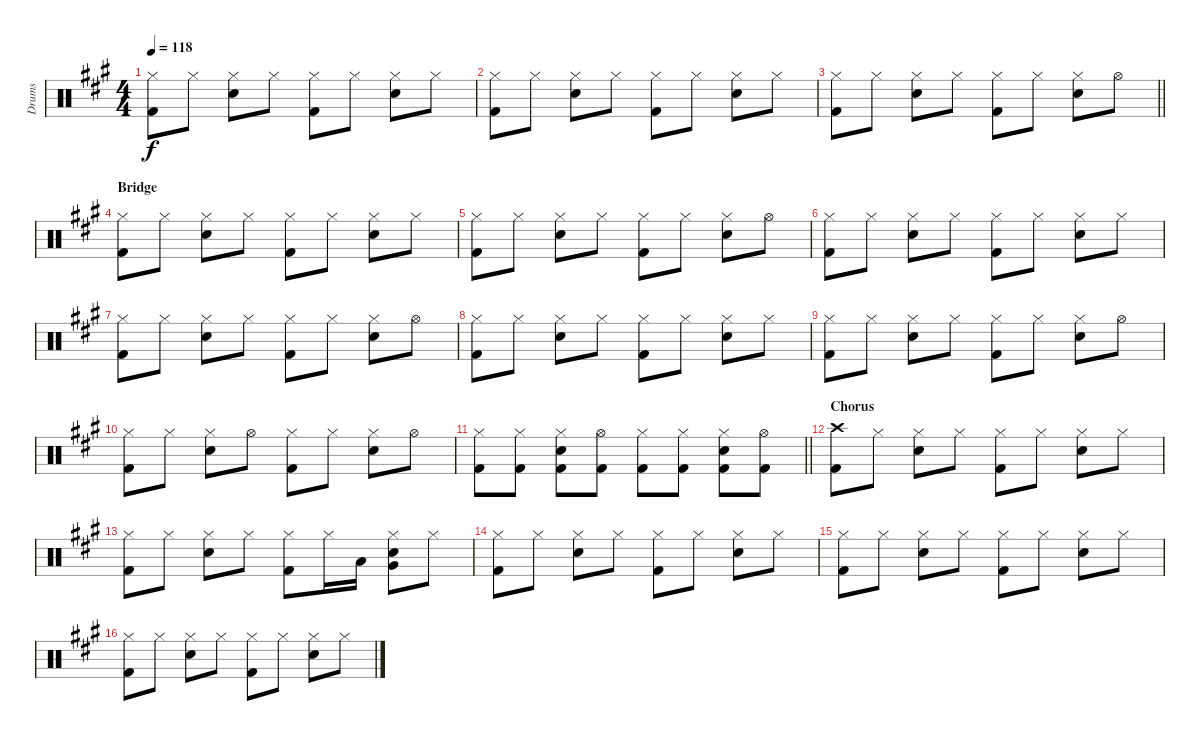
\track ("Drums" "Drums") {instrument percussion}
\staff {score}
\articulation defaults
\ts (4 4)
\tempo 118
\clef neutral
\ks f#minor
("Hi-Hat (closed)" "Kick (hit) 2").8{dy f} "Hi-Hat (closed)".8 ("Hi-Hat (closed)" "Snare (hit) 2").8 "Hi-Hat (closed)".8 ("Hi-Hat (closed)" "Kick (hit) 2").8 "Hi-Hat (closed)".8 ("Hi-Hat (closed)" "Snare (hit) 2").8 "Hi-Hat (closed)".8 |
("Hi-Hat (closed)" "Kick (hit) 2").8 "Hi-Hat (closed)".8 ("Hi-Hat (closed)" "Snare (hit) 2").8 "Hi-Hat (closed)".8 ("Hi-Hat (closed)" "Kick (hit) 2").8 "Hi-Hat (closed)".8 ("Hi-Hat (closed)" "Snare (hit) 2").8 "Hi-Hat (closed)".8 |
\barLineRight lightlight
("Hi-Hat (closed)" "Kick (hit) 2").8 "Hi-Hat (closed)".8 ("Hi-Hat (closed)" "Snare (hit) 2").8 "Hi-Hat (closed)".8 ("Hi-Hat (closed)" "Kick (hit) 2").8 "Hi-Hat (closed)".8 ("Hi-Hat (closed)" "Snare (hit) 2").8 "Hi-Hat (open)".8 |
\section ("" "Bridge")
("Hi-Hat (closed)" "Kick (hit) 2").8 "Hi-Hat (closed)".8 ("Hi-Hat (closed)" "Snare (hit) 2").8 "Hi-Hat (closed)".8 ("Hi-Hat (closed)" "Kick (hit) 2").8 "Hi-Hat (closed)".8 ("Hi-Hat (closed)" "Snare (hit) 2").8 "Hi-Hat (closed)".8 |
("Hi-Hat (closed)" "Kick (hit) 2").8 "Hi-Hat (closed)".8 ("Hi-Hat (closed)" "Snare (hit) 2").8 "Hi-Hat (closed)".8 ("Hi-Hat (closed)" "Kick (hit) 2").8 "Hi-Hat (closed)".8 ("Hi-Hat (closed)" "Snare (hit) 2").8 "Hi-Hat (open)".8 |
("Hi-Hat (closed)" "Kick (hit) 2").8 "Hi-Hat (closed)".8 ("Hi-Hat (closed)" "Snare (hit) 2").8 "Hi-Hat (closed)".8 ("Hi-Hat (closed)" "Kick (hit) 2").8 "Hi-Hat (closed)".8 ("Hi-Hat (closed)" "Snare (hit) 2").8 "Hi-Hat (closed)".8 |
("Hi-Hat (closed)" "Kick (hit) 2").8 "Hi-Hat (closed)".8 ("Hi-Hat (closed)" "Snare (hit) 2").8 "Hi-Hat (closed)".8 ("Hi-Hat (closed)" "Kick (hit) 2").8 "Hi-Hat (closed)".8 ("Hi-Hat (closed)" "Snare (hit) 2").8 "Hi-Hat (open)".8 |
("Hi-Hat (closed)" "Kick (hit) 2").8 "Hi-Hat (closed)".8 ("Hi-Hat (closed)" "Snare (hit) 2").8 "Hi-Hat (closed)".8 ("Hi-Hat (closed)" "Kick (hit) 2").8 "Hi-Hat (closed)".8 ("Hi-Hat (closed)" "Snare (hit) 2").8 "Hi-Hat (closed)".8 |
("Hi-Hat (closed)" "Kick (hit) 2").8 "Hi-Hat (closed)".8 ("Hi-Hat (closed)" "Snare (hit) 2").8 "Hi-Hat (closed)".8 ("Hi-Hat (closed)" "Kick (hit) 2").8 "Hi-Hat (closed)".8 ("Hi-Hat (closed)" "Snare (hit) 2").8 "Hi-Hat (open)".8 |
("Hi-Hat (closed)" "Kick (hit) 2").8 "Hi-Hat (closed)".8 ("Hi-Hat (closed)" "Snare (hit) 2").8 "Hi-Hat (open)".8 ("Hi-Hat (closed)" "Kick (hit) 2").8 "Hi-Hat (closed)".8 ("Hi-Hat (closed)" "Snare (hit) 2").8 "Hi-Hat (open)".8 |
\barLineRight lightlight
("Hi-Hat (closed)" "Kick (hit) 2").8 ("Hi-Hat (closed)" "Kick (hit) 2").8 ("Hi-Hat (closed)" "Snare (hit) 2" "Kick (hit) 2").8 ("Hi-Hat (open)" "Kick (hit) 2").8 ("Hi-Hat (closed)" "Kick (hit) 2").8 ("Hi-Hat (closed)" "Kick (hit) 2").8 ("Hi-Hat (closed)" "Snare (hit) 2" "Kick (hit) 2").8 ("Hi-Hat (open)" "Kick (hit) 2").8 |
\section ("" "Chorus")
("Crash high (hit)" "Kick (hit) 2").8 "Hi-Hat (closed)".8 ("Hi-Hat (closed)" "Snare (hit) 2").8 "Hi-Hat (closed)".8 ("Hi-Hat (closed)" "Kick (hit) 2").8 "Hi-Hat (closed)".8 ("Hi-Hat (closed)" "Snare (hit) 2").8 "Hi-Hat (closed)".8 |
("Hi-Hat (closed)" "Kick (hit) 2").8 "Hi-Hat (closed)".8 ("Hi-Hat (closed)" "Snare (hit) 2").8 "Hi-Hat (closed)".8 ("Hi-Hat (closed)" "Kick (hit) 2").8 "Hi-Hat (closed)".16 "Low Floor Tom (hit)".16 ("Hi-Hat (closed)" "Very Low Tom (hit)" "Snare (hit) 2").8 "Hi-Hat (closed)".8 |
("Hi-Hat (closed)" "Kick (hit) 2").8 "Hi-Hat (closed)".8 ("Hi-Hat (closed)" "Snare (hit) 2").8 "Hi-Hat (closed)".8 ("Hi-Hat (closed)" "Kick (hit) 2").8 "Hi-Hat (closed)".8 ("Hi-Hat (closed)" "Snare (hit) 2").8 "Hi-Hat (closed)".8 |
("Hi-Hat (closed)" "Kick (hit) 2").8 "Hi-Hat (closed)".8 ("Hi-Hat (closed)" "Snare (hit) 2").8 "Hi-Hat (closed)".8 ("Hi-Hat (closed)" "Kick (hit) 2").8 "Hi-Hat (closed)".8 ("Hi-Hat (closed)" "Snare (hit) 2").8 "Hi-Hat (closed)".8 |
("Hi-Hat (closed)" "Kick (hit) 2").8 "Hi-Hat (closed)".8 ("Hi-Hat (closed)" "Snare (hit) 2").8 "Hi-Hat (closed)".8 ("Hi-Hat (closed)" "Kick (hit) 2").8 "Hi-Hat (closed)".8 ("Hi-Hat (closed)" "Snare (hit) 2").8 "Hi-Hat (closed)".8
